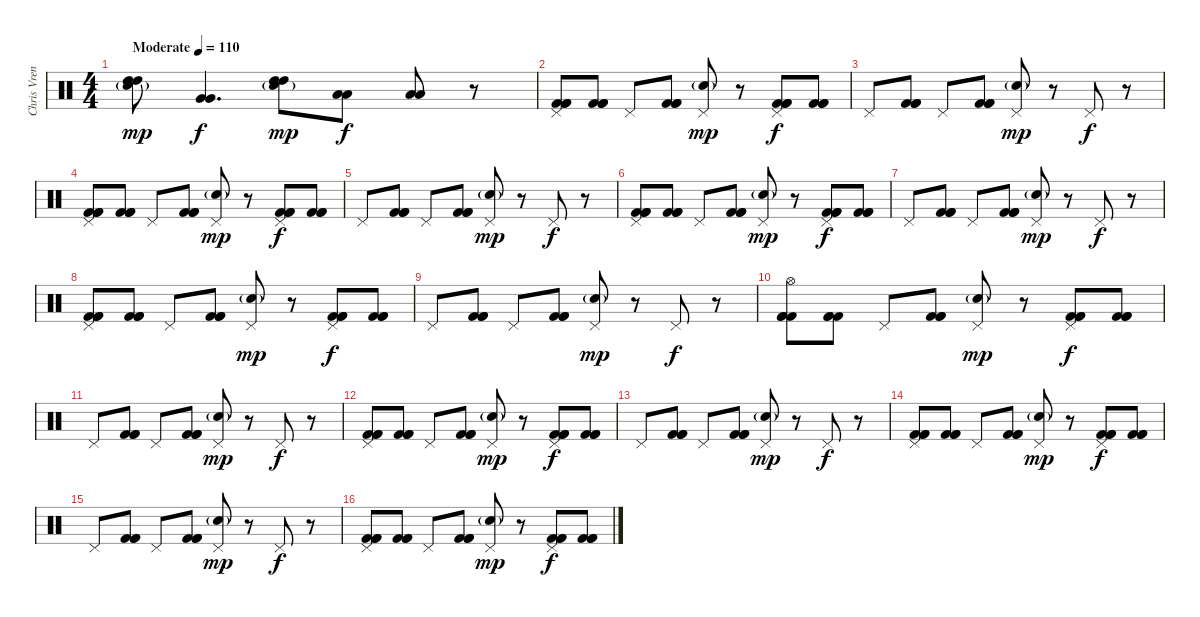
\track ("Chris Vrenna " "Chris Vren") {instrument percussion}
\staff {score}
\articulation defaults
\ts (4 4)
\tempo (110 "Moderate")
\clef neutral
\ks c
("Snare (hit) 2"{g} "High Tom (hit)" "High Tom (hit)").8{dy mp} ("Very Low Tom (hit)" "Very Low Tom (hit)").4{d dy f} ("Snare (hit) 2"{g} "High Tom (hit)" "High Tom (hit)").8{dy mp} ("Low Tom (hit)" "Low Tom (hit)").8{dy f} ("Low Floor Tom (hit)" "Low Floor Tom (hit)").8 r.8 |
("Pedal Hi-Hat (hit)" "Kick (hit) 2" "Kick (hit) 2" "Kick (hit) 2").8 ("Kick (hit) 2" "Kick (hit) 2" "Kick (hit) 2").8 "Pedal Hi-Hat (hit)".8 ("Kick (hit) 2" "Kick (hit) 2" "Kick (hit) 2").8 ("Pedal Hi-Hat (hit)" "Electric Snare (hit)"{g}).8{dy mp} r.8 ("Pedal Hi-Hat (hit)" "Kick (hit) 2" "Kick (hit) 2" "Kick (hit) 2").8{dy f} ("Kick (hit) 2" "Kick (hit) 2" "Kick (hit) 2").8 |
"Pedal Hi-Hat (hit)".8 ("Kick (hit) 2" "Kick (hit) 2" "Kick (hit) 2").8 "Pedal Hi-Hat (hit)".8 ("Kick (hit) 2" "Kick (hit) 2" "Kick (hit) 2").8 ("Pedal Hi-Hat (hit)" "Electric Snare (hit)"{g}).8{dy mp} r.8 "Pedal Hi-Hat (hit)".8{dy f} r.8 |
("Pedal Hi-Hat (hit)" "Kick (hit) 2" "Kick (hit) 2" "Kick (hit) 2").8 ("Kick (hit) 2" "Kick (hit) 2" "Kick (hit) 2").8 "Pedal Hi-Hat (hit)".8 ("Kick (hit) 2" "Kick (hit) 2" "Kick (hit) 2").8 ("Pedal Hi-Hat (hit)" "Electric Snare (hit)"{g}).8{dy mp} r.8 ("Pedal Hi-Hat (hit)" "Kick (hit) 2" "Kick (hit) 2" "Kick (hit) 2").8{dy f} ("Kick (hit) 2" "Kick (hit) 2" "Kick (hit) 2").8 |
"Pedal Hi-Hat (hit)".8 ("Kick (hit) 2" "Kick (hit) 2" "Kick (hit) 2").8 "Pedal Hi-Hat (hit)".8 ("Kick (hit) 2" "Kick (hit) 2" "Kick (hit) 2").8 ("Pedal Hi-Hat (hit)" "Electric Snare (hit)"{g}).8{dy mp} r.8 "Pedal Hi-Hat (hit)".8{dy f} r.8 |
("Pedal Hi-Hat (hit)" "Kick (hit) 2" "Kick (hit) 2" "Kick (hit) 2").8 ("Kick (hit) 2" "Kick (hit) 2" "Kick (hit) 2").8 "Pedal Hi-Hat (hit)".8 ("Kick (hit) 2" "Kick (hit) 2" "Kick (hit) 2").8 ("Pedal Hi-Hat (hit)" "Electric Snare (hit)"{g}).8{dy mp} r.8 ("Pedal Hi-Hat (hit)" "Kick (hit) 2" "Kick (hit) 2" "Kick (hit) 2").8{dy f} ("Kick (hit) 2" "Kick (hit) 2" "Kick (hit) 2").8 |
"Pedal Hi-Hat (hit)".8 ("Kick (hit) 2" "Kick (hit) 2" "Kick (hit) 2").8 "Pedal Hi-Hat (hit)".8 ("Kick (hit) 2" "Kick (hit) 2" "Kick (hit) 2").8 ("Pedal Hi-Hat (hit)" "Electric Snare (hit)"{g}).8{dy mp} r.8 "Pedal Hi-Hat (hit)".8{dy f} r.8 |
("Pedal Hi-Hat (hit)" "Kick (hit) 2" "Kick (hit) 2" "Kick (hit) 2").8 ("Kick (hit) 2" "Kick (hit) 2" "Kick (hit) 2").8 "Pedal Hi-Hat (hit)".8 ("Kick (hit) 2" "Kick (hit) 2" "Kick (hit) 2").8 ("Pedal Hi-Hat (hit)" "Electric Snare (hit)"{g}).8{dy mp} r.8 ("Pedal Hi-Hat (hit)" "Kick (hit) 2" "Kick (hit) 2" "Kick (hit) 2").8{dy f} ("Kick (hit) 2" "Kick (hit) 2" "Kick (hit) 2").8 |
"Pedal Hi-Hat (hit)".8 ("Kick (hit) 2" "Kick (hit) 2" "Kick (hit) 2").8 "Pedal Hi-Hat (hit)".8 ("Kick (hit) 2" "Kick (hit) 2" "Kick (hit) 2").8 ("Pedal Hi-Hat (hit)" "Electric Snare (hit)"{g}).8{dy mp} r.8 "Pedal Hi-Hat (hit)".8{dy f} r.8 |
("Hi-Hat (open)" "Kick (hit) 2" "Kick (hit) 2" "Kick (hit) 2").8 ("Kick (hit) 2" "Kick (hit) 2" "Kick (hit) 2").8 "Pedal Hi-Hat (hit)".8 ("Kick (hit) 2" "Kick (hit) 2" "Kick (hit) 2").8 ("Pedal Hi-Hat (hit)" "Electric Snare (hit)"{g}).8{dy mp} r.8 ("Pedal Hi-Hat (hit)" "Kick (hit) 2" "Kick (hit) 2" "Kick (hit) 2").8{dy f} ("Kick (hit) 2" "Kick (hit) 2" "Kick (hit) 2").8 |
"Pedal Hi-Hat (hit)".8 ("Kick (hit) 2" "Kick (hit) 2" "Kick (hit) 2").8 "Pedal Hi-Hat (hit)".8 ("Kick (hit) 2" "Kick (hit) 2" "Kick (hit) 2").8 ("Pedal Hi-Hat (hit)" "Electric Snare (hit)"{g}).8{dy mp} r.8 "Pedal Hi-Hat (hit)".8{dy f} r.8 |
("Pedal Hi-Hat (hit)" "Kick (hit) 2" "Kick (hit) 2" "Kick (hit) 2").8 ("Kick (hit) 2" "Kick (hit) 2" "Kick (hit) 2").8 "Pedal Hi-Hat (hit)".8 ("Kick (hit) 2" "Kick (hit) 2" "Kick (hit) 2").8 ("Pedal Hi-Hat (hit)" "Electric Snare (hit)"{g}).8{dy mp} r.8 ("Pedal Hi-Hat (hit)" "Kick (hit) 2" "Kick (hit) 2" "Kick (hit) 2").8{dy f} ("Kick (hit) 2" "Kick (hit) 2" "Kick (hit) 2").8 |
"Pedal Hi-Hat (hit)".8 ("Kick (hit) 2" "Kick (hit) 2" "Kick (hit) 2").8 "Pedal Hi-Hat (hit)".8 ("Kick (hit) 2" "Kick (hit) 2" "Kick (hit) 2").8 ("Pedal Hi-Hat (hit)" "Electric Snare (hit)"{g}).8{dy mp} r.8 "Pedal Hi-Hat (hit)".8{dy f} r.8 |
("Pedal Hi-Hat (hit)" "Kick (hit) 2" "Kick (hit) 2" "Kick (hit) 2").8 ("Kick (hit) 2" "Kick (hit) 2" "Kick (hit) 2").8 "Pedal Hi-Hat (hit)".8 ("Kick (hit) 2" "Kick (hit) 2" "Kick (hit) 2").8 ("Pedal Hi-Hat (hit)" "Electric Snare (hit)"{g}).8{dy mp} r.8 ("Pedal Hi-Hat (hit)" "Kick (hit) 2" "Kick (hit) 2" "Kick (hit) 2").8{dy f} ("Kick (hit) 2" "Kick (hit) 2" "Kick (hit) 2").8 |
"Pedal Hi-Hat (hit)".8 ("Kick (hit) 2" "Kick (hit) 2" "Kick (hit) 2").8 "Pedal Hi-Hat (hit)".8 ("Kick (hit) 2" "Kick (hit) 2" "Kick (hit) 2").8 ("Pedal Hi-Hat (hit)" "Electric Snare (hit)"{g}).8{dy mp} r.8 "Pedal Hi-Hat (hit)".8{dy f} r.8 |
("Pedal Hi-Hat (hit)" "Kick (hit) 2" "Kick (hit) 2" "Kick (hit) 2").8 ("Kick (hit) 2" "Kick (hit) 2" "Kick (hit) 2").8 "Pedal Hi-Hat (hit)".8 ("Kick (hit) 2" "Kick (hit) 2" "Kick (hit) 2").8 ("Pedal Hi-Hat (hit)" "Electric Snare (hit)"{g}).8{dy mp} r.8 ("Pedal Hi-Hat (hit)" "Kick (hit) 2" "Kick (hit) 2" "Kick (hit) 2").8{dy f} ("Kick (hit) 2" "Kick (hit) 2" "Kick (hit) 2").8
